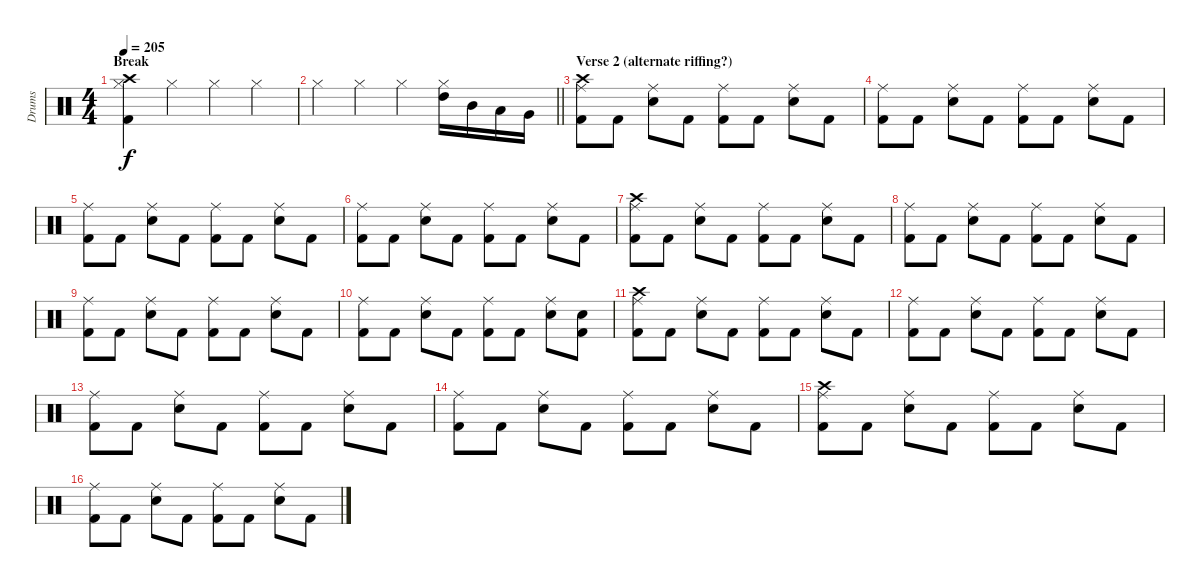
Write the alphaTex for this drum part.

\track ("Drums" "Drums") {instrument percussion}
\staff {score}
\articulation defaults
\ts (4 4)
\section ("" "Break")
\tempo 205
\clef neutral
\ks c
("Crash high (hit)" "Hi-Hat (closed)" "Kick (hit) 2").4{dy f} "Hi-Hat (closed)".4 "Hi-Hat (closed)".4 "Hi-Hat (closed)".4 |
\barLineRight lightlight "Hi-Hat (closed)".4 "Hi-Hat (closed)".4 "Hi-Hat (closed)".4
("Hi-Hat (closed)" "High Tom (hit)").16 "Mid Tom (hit)".16 "Low Tom (hit)".16 "Very Low Tom (hit)".16 |
\section ("" "Verse 2 (alternate riffing?)")
("Crash high (hit)" "Ride (middle)" "Kick (hit) 2").8 "Kick (hit) 2".8 ("Ride (middle)" "Snare (hit) 2").8 "Kick (hit) 2".8 ("Ride (middle)" "Kick (hit) 2").8 "Kick (hit) 2".8 ("Ride (middle)" "Snare (hit) 2").8 "Kick (hit) 2".8 |
("Ride (middle)" "Kick (hit) 2").8 "Kick (hit) 2".8 ("Ride (middle)" "Snare (hit) 2").8 "Kick (hit) 2".8 ("Ride (middle)" "Kick (hit) 2").8 "Kick (hit) 2".8 ("Ride (middle)" "Snare (hit) 2").8 "Kick (hit) 2".8 |
("Ride (middle)" "Kick (hit) 2").8 "Kick (hit) 2".8 ("Ride (middle)" "Snare (hit) 2").8 "Kick (hit) 2".8 ("Ride (middle)" "Kick (hit) 2").8 "Kick (hit) 2".8 ("Ride (middle)" "Snare (hit) 2").8 "Kick (hit) 2".8 |
("Ride (middle)" "Kick (hit) 2").8 "Kick (hit) 2".8 ("Ride (middle)" "Snare (hit) 2").8 "Kick (hit) 2".8 ("Ride (middle)" "Kick (hit) 2").8 "Kick (hit) 2".8 ("Ride (middle)" "Snare (hit) 2").8 "Kick (hit) 2".8 |
("Crash high (hit)" "Ride (middle)" "Kick (hit) 2").8 "Kick (hit) 2".8 ("Ride (middle)" "Snare (hit) 2").8 "Kick (hit) 2".8 ("Ride (middle)" "Kick (hit) 2").8 "Kick (hit) 2".8 ("Ride (middle)" "Snare (hit) 2").8 "Kick (hit) 2".8 |
("Ride (middle)" "Kick (hit) 2").8 "Kick (hit) 2".8 ("Ride (middle)" "Snare (hit) 2").8 "Kick (hit) 2".8 ("Ride (middle)" "Kick (hit) 2").8 "Kick (hit) 2".8 ("Ride (middle)" "Snare (hit) 2").8 "Kick (hit) 2".8 |
("Ride (middle)" "Kick (hit) 2").8 "Kick (hit) 2".8 ("Ride (middle)" "Snare (hit) 2").8 "Kick (hit) 2".8 ("Ride (middle)" "Kick (hit) 2").8 "Kick (hit) 2".8 ("Ride (middle)" "Snare (hit) 2").8 "Kick (hit) 2".8 |
("Ride (middle)" "Kick (hit) 2").8 "Kick (hit) 2".8 ("Ride (middle)" "Snare (hit) 2").8 "Kick (hit) 2".8 ("Ride (middle)" "Kick (hit) 2").8 "Kick (hit) 2".8 ("Ride (middle)" "Snare (hit) 2").8 ("Snare (hit) 2" "Kick (hit) 2").8 |
("Crash high (hit)" "Ride (middle)" "Kick (hit) 2").8 "Kick (hit) 2".8 ("Ride (middle)" "Snare (hit) 2").8 "Kick (hit) 2".8 ("Ride (middle)" "Kick (hit) 2").8 "Kick (hit) 2".8 ("Ride (middle)" "Snare (hit) 2").8 "Kick (hit) 2".8 |
("Ride (middle)" "Kick (hit) 2").8 "Kick (hit) 2".8 ("Ride (middle)" "Snare (hit) 2").8 "Kick (hit) 2".8 ("Ride (middle)" "Kick (hit) 2").8 "Kick (hit) 2".8 ("Ride (middle)" "Snare (hit) 2").8 "Kick (hit) 2".8 |
("Ride (middle)" "Kick (hit) 2").8 "Kick (hit) 2".8 ("Ride (middle)" "Snare (hit) 2").8 "Kick (hit) 2".8 ("Ride (middle)" "Kick (hit) 2").8 "Kick (hit) 2".8 ("Ride (middle)" "Snare (hit) 2").8 "Kick (hit) 2".8 |
("Ride (middle)" "Kick (hit) 2").8 "Kick (hit) 2".8 ("Ride (middle)" "Snare (hit) 2").8 "Kick (hit) 2".8 ("Ride (middle)" "Kick (hit) 2").8 "Kick (hit) 2".8 ("Ride (middle)" "Snare (hit) 2").8 "Kick (hit) 2".8 |
("Crash high (hit)" "Ride (middle)" "Kick (hit) 2").8 "Kick (hit) 2".8 ("Ride (middle)" "Snare (hit) 2").8 "Kick (hit) 2".8 ("Ride (middle)" "Kick (hit) 2").8 "Kick (hit) 2".8 ("Ride (middle)" "Snare (hit) 2").8 "Kick (hit) 2".8 |
("Ride (middle)" "Kick (hit) 2").8 "Kick (hit) 2".8 ("Ride (middle)" "Snare (hit) 2").8 "Kick (hit) 2".8 ("Ride (middle)" "Kick (hit) 2").8 "Kick (hit) 2".8 ("Ride (middle)" "Snare (hit) 2").8 "Kick (hit) 2".8
